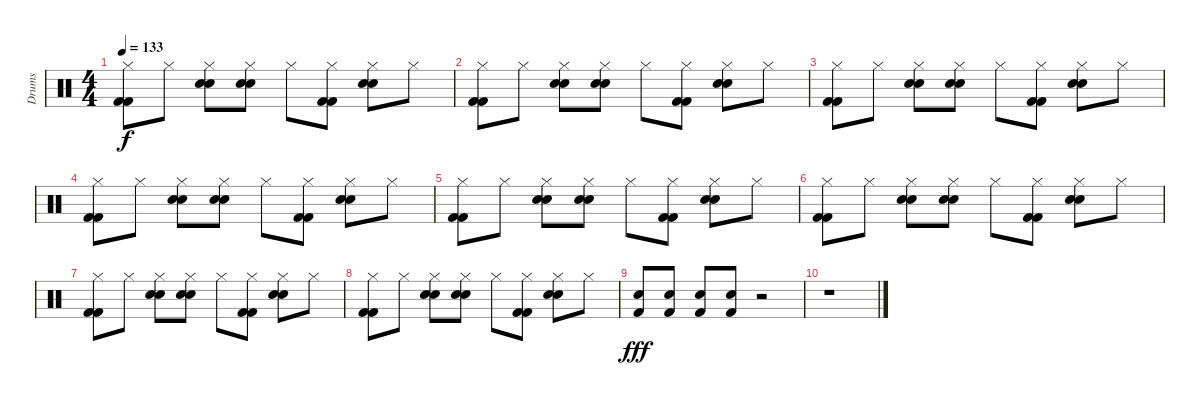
\track ("Drums" "Drums") {instrument percussion}
\staff {score}
\articulation defaults
\ts (4 4)
\tempo 133
\clef neutral
\ks c
("Kick (hit) 2" "Kick (hit) 2" "Hi-Hat (closed)").8{dy f} "Hi-Hat (closed)".8 ("Snare (hit) 2" "Hi-Hat (closed)" "Electric Snare (hit)").8 ("Snare (hit) 2" "Hi-Hat (closed)" "Electric Snare (hit)").8 "Hi-Hat (closed)".8 ("Kick (hit) 2" "Kick (hit) 2" "Hi-Hat (closed)").8 ("Snare (hit) 2" "Hi-Hat (closed)" "Electric Snare (hit)").8 "Hi-Hat (closed)".8 |
("Kick (hit) 2" "Kick (hit) 2" "Hi-Hat (closed)").8 "Hi-Hat (closed)".8 ("Snare (hit) 2" "Hi-Hat (closed)" "Electric Snare (hit)").8 ("Snare (hit) 2" "Hi-Hat (closed)" "Electric Snare (hit)").8 "Hi-Hat (closed)".8 ("Kick (hit) 2" "Kick (hit) 2" "Hi-Hat (closed)").8 ("Snare (hit) 2" "Hi-Hat (closed)" "Electric Snare (hit)").8 "Hi-Hat (closed)".8 |
("Kick (hit) 2" "Kick (hit) 2" "Hi-Hat (closed)").8 "Hi-Hat (closed)".8 ("Snare (hit) 2" "Hi-Hat (closed)" "Electric Snare (hit)").8 ("Snare (hit) 2" "Hi-Hat (closed)" "Electric Snare (hit)").8 "Hi-Hat (closed)".8 ("Kick (hit) 2" "Kick (hit) 2" "Hi-Hat (closed)").8 ("Snare (hit) 2" "Hi-Hat (closed)" "Electric Snare (hit)").8 "Hi-Hat (closed)".8 |
("Kick (hit) 2" "Kick (hit) 2" "Hi-Hat (closed)").8 "Hi-Hat (closed)".8 ("Snare (hit) 2" "Hi-Hat (closed)" "Electric Snare (hit)").8 ("Snare (hit) 2" "Hi-Hat (closed)" "Electric Snare (hit)").8 "Hi-Hat (closed)".8 ("Kick (hit) 2" "Kick (hit) 2" "Hi-Hat (closed)").8 ("Snare (hit) 2" "Hi-Hat (closed)" "Electric Snare (hit)").8 "Hi-Hat (closed)".8 |
("Kick (hit) 2" "Kick (hit) 2" "Hi-Hat (closed)").8 "Hi-Hat (closed)".8 ("Snare (hit) 2" "Hi-Hat (closed)" "Electric Snare (hit)").8 ("Snare (hit) 2" "Hi-Hat (closed)" "Electric Snare (hit)").8 "Hi-Hat (closed)".8 ("Kick (hit) 2" "Kick (hit) 2" "Hi-Hat (closed)").8 ("Snare (hit) 2" "Hi-Hat (closed)" "Electric Snare (hit)").8 "Hi-Hat (closed)".8 |
("Kick (hit) 2" "Kick (hit) 2" "Hi-Hat (closed)").8 "Hi-Hat (closed)".8 ("Snare (hit) 2" "Hi-Hat (closed)" "Electric Snare (hit)").8 ("Snare (hit) 2" "Hi-Hat (closed)" "Electric Snare (hit)").8 "Hi-Hat (closed)".8 ("Kick (hit) 2" "Kick (hit) 2" "Hi-Hat (closed)").8 ("Snare (hit) 2" "Hi-Hat (closed)" "Electric Snare (hit)").8 "Hi-Hat (closed)".8 |
("Kick (hit) 2" "Kick (hit) 2" "Hi-Hat (closed)").8 "Hi-Hat (closed)".8 ("Snare (hit) 2" "Hi-Hat (closed)" "Electric Snare (hit)").8 ("Snare (hit) 2" "Hi-Hat (closed)" "Electric Snare (hit)").8 "Hi-Hat (closed)".8 ("Kick (hit) 2" "Kick (hit) 2" "Hi-Hat (closed)").8 ("Snare (hit) 2" "Hi-Hat (closed)" "Electric Snare (hit)").8 "Hi-Hat (closed)".8 |
("Kick (hit) 2" "Kick (hit) 2" "Hi-Hat (closed)").8 "Hi-Hat (closed)".8 ("Snare (hit) 2" "Hi-Hat (closed)" "Electric Snare (hit)").8 ("Snare (hit) 2" "Hi-Hat (closed)" "Electric Snare (hit)").8 "Hi-Hat (closed)".8 ("Kick (hit) 2" "Kick (hit) 2" "Hi-Hat (closed)").8 ("Snare (hit) 2" "Hi-Hat (closed)" "Electric Snare (hit)").8 "Hi-Hat (closed)".8 |
("Snare (hit) 2" "Kick (hit) 2").8{dy fff} ("Snare (hit) 2" "Kick (hit) 2").8 ("Snare (hit) 2" "Kick (hit) 2").8 ("Snare (hit) 2" "Kick (hit) 2").8 r.2 |
r.1
